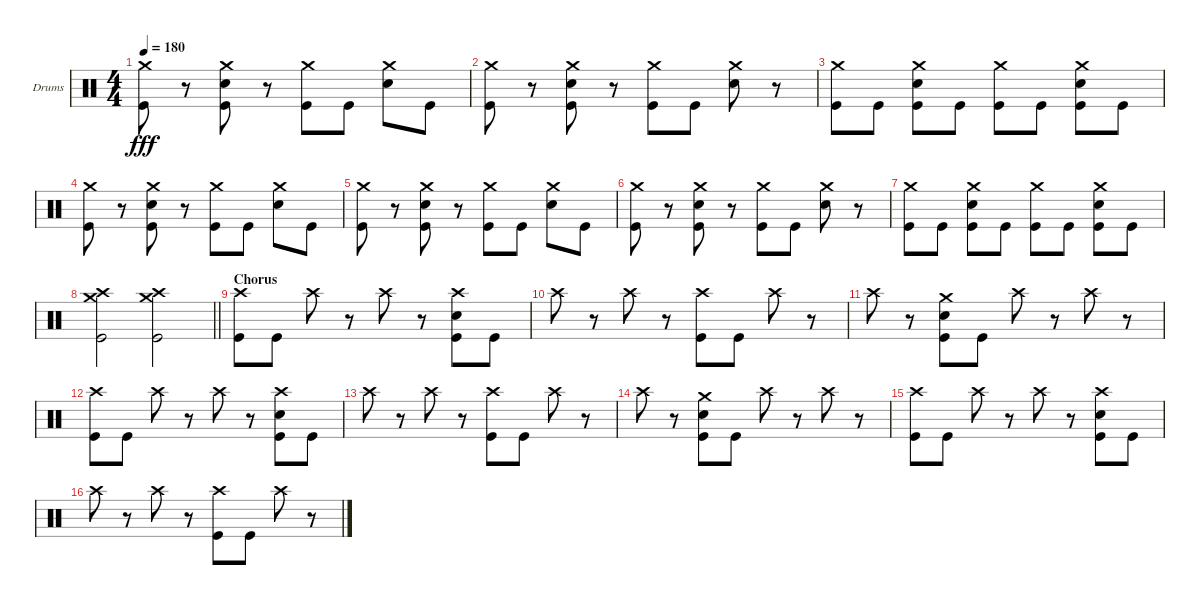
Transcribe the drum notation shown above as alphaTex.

\bracketExtendMode groupsimilarinstruments
\firstSystemTrackNameOrientation horizontal
\otherSystemsTrackNameOrientation horizontal
\track ("Drumkit" "Drums") {instrument percussion}
\staff {score}
\articulation defaults
\ts (4 4)
\tempo 180
\clef neutral
\ks c
("Crash medium (hit)" "Kick (hit)").8{dy fff} r.8 ("Crash medium (hit)" "Snare (hit) 2" "Kick (hit)").8 r.8 ("Crash medium (hit)" "Kick (hit)").8 "Kick (hit)".8 ("Crash medium (hit)" "Snare (hit) 2").8 "Kick (hit)".8 |
("Crash medium (hit)" "Kick (hit)").8 r.8 ("Crash medium (hit)" "Snare (hit) 2" "Kick (hit)").8 r.8 ("Crash medium (hit)" "Kick (hit)").8 "Kick (hit)".8 ("Crash medium (hit)" "Snare (hit) 2").8 r.8 |
("Crash medium (hit)" "Kick (hit)").8 "Kick (hit)".8 ("Crash medium (hit)" "Snare (hit) 2" "Kick (hit)").8 "Kick (hit)".8 ("Crash medium (hit)" "Kick (hit)").8 "Kick (hit)".8 ("Crash medium (hit)" "Snare (hit) 2" "Kick (hit)").8 "Kick (hit)".8 |
("Crash medium (hit)" "Kick (hit)").8 r.8 ("Crash medium (hit)" "Snare (hit) 2" "Kick (hit)").8 r.8 ("Crash medium (hit)" "Kick (hit)").8 "Kick (hit)".8 ("Crash medium (hit)" "Snare (hit) 2").8 "Kick (hit)".8 |
("Crash medium (hit)" "Kick (hit)").8 r.8 ("Crash medium (hit)" "Snare (hit) 2" "Kick (hit)").8 r.8 ("Crash medium (hit)" "Kick (hit)").8 "Kick (hit)".8 ("Crash medium (hit)" "Snare (hit) 2").8 "Kick (hit)".8 |
("Crash medium (hit)" "Kick (hit)").8 r.8 ("Crash medium (hit)" "Snare (hit) 2" "Kick (hit)").8 r.8 ("Crash medium (hit)" "Kick (hit)").8 "Kick (hit)".8 ("Crash medium (hit)" "Snare (hit) 2").8 r.8 |
("Crash medium (hit)" "Kick (hit)").8 "Kick (hit)".8 ("Crash medium (hit)" "Snare (hit) 2" "Kick (hit)").8 "Kick (hit)".8 ("Crash medium (hit)" "Kick (hit)").8 "Kick (hit)".8 ("Crash medium (hit)" "Snare (hit) 2" "Kick (hit)").8 "Kick (hit)".8 |
\barLineRight lightlight
("Crash high (hit)" "Crash medium (hit)" "Kick (hit)").2 ("Crash high (hit)" "Crash medium (hit)" "Kick (hit)").2 |
\section ("" "Chorus")
("Crash high (hit)" "Kick (hit)").8 "Kick (hit)".8 "Crash high (hit)".8 r.8 "Crash high (hit)".8 r.8 ("Crash high (hit)" "Snare (hit) 2" "Kick (hit)").8 "Kick (hit)".8 |
"Crash high (hit)".8 r.8 "Crash high (hit)".8 r.8 ("Crash high (hit)" "Kick (hit)").8 "Kick (hit)".8 "Crash high (hit)".8 r.8 |
"Crash high (hit)".8 r.8 ("Crash medium (hit)" "Snare (hit) 2" "Kick (hit)").8 "Kick (hit)".8 "Crash high (hit)".8 r.8 "Crash high (hit)".8 r.8 |
("Crash high (hit)" "Kick (hit)").8 "Kick (hit)".8 "Crash high (hit)".8 r.8 "Crash high (hit)".8 r.8 ("Crash high (hit)" "Snare (hit) 2" "Kick (hit)").8 "Kick (hit)".8 |
"Crash high (hit)".8 r.8 "Crash high (hit)".8 r.8 ("Crash high (hit)" "Kick (hit)").8 "Kick (hit)".8 "Crash high (hit)".8 r.8 |
"Crash high (hit)".8 r.8 ("Crash medium (hit)" "Snare (hit) 2" "Kick (hit)").8 "Kick (hit)".8 "Crash high (hit)".8 r.8 "Crash high (hit)".8 r.8 |
("Crash high (hit)" "Kick (hit)").8 "Kick (hit)".8 "Crash high (hit)".8 r.8 "Crash high (hit)".8 r.8 ("Crash high (hit)" "Snare (hit) 2" "Kick (hit)").8 "Kick (hit)".8 |
"Crash high (hit)".8 r.8 "Crash high (hit)".8 r.8 ("Crash high (hit)" "Kick (hit)").8 "Kick (hit)".8 "Crash high (hit)".8 r.8
